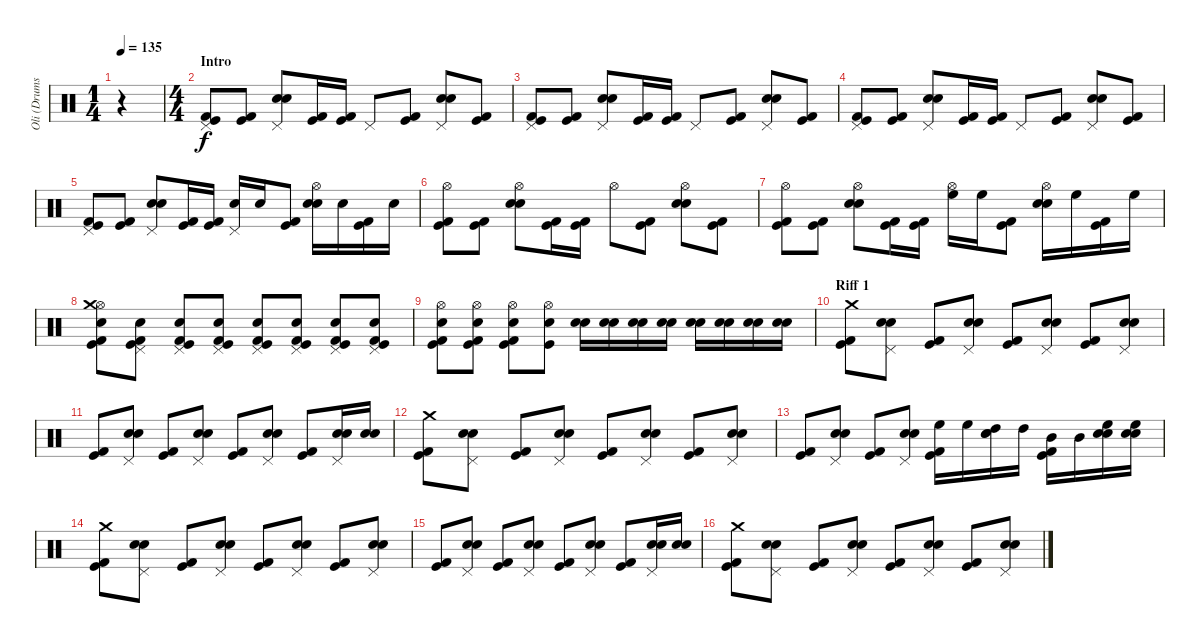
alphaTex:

\track ("Oli (Drums)" "Oli (Drums") {instrument percussion}
\staff {score}
\articulation defaults
\ts (1 4)
\tempo 135
\clef neutral
\ks c
r.4{dy f} |
\ts (4 4)
\section ("" "Intro")
("Kick (hit) 2" "Kick (hit)" "Pedal Hi-Hat (hit)").8 ("Kick (hit) 2" "Kick (hit)").8 ("Snare (hit) 2" "Electric Snare (hit)" "Pedal Hi-Hat (hit)").8 ("Kick (hit) 2" "Kick (hit)").16 ("Kick (hit) 2" "Kick (hit)").16 "Pedal Hi-Hat (hit)".8 ("Kick (hit) 2" "Kick (hit)").8 ("Snare (hit) 2" "Electric Snare (hit)" "Pedal Hi-Hat (hit)").8 ("Kick (hit)" "Kick (hit) 2").8 |
("Kick (hit) 2" "Kick (hit)" "Pedal Hi-Hat (hit)").8 ("Kick (hit) 2" "Kick (hit)").8 ("Snare (hit) 2" "Electric Snare (hit)" "Pedal Hi-Hat (hit)").8 ("Kick (hit) 2" "Kick (hit)").16 ("Kick (hit) 2" "Kick (hit)").16 "Pedal Hi-Hat (hit)".8 ("Kick (hit) 2" "Kick (hit)").8 ("Snare (hit) 2" "Electric Snare (hit)" "Pedal Hi-Hat (hit)").8 ("Kick (hit)" "Kick (hit) 2").8 |
("Kick (hit) 2" "Kick (hit)" "Pedal Hi-Hat (hit)").8 ("Kick (hit) 2" "Kick (hit)").8 ("Snare (hit) 2" "Electric Snare (hit)" "Pedal Hi-Hat (hit)").8 ("Kick (hit) 2" "Kick (hit)").16 ("Kick (hit) 2" "Kick (hit)").16 "Pedal Hi-Hat (hit)".8 ("Kick (hit) 2" "Kick (hit)").8 ("Snare (hit) 2" "Electric Snare (hit)" "Pedal Hi-Hat (hit)").8 ("Kick (hit)" "Kick (hit) 2").8 |
("Kick (hit) 2" "Kick (hit)" "Pedal Hi-Hat (hit)").8 ("Kick (hit) 2" "Kick (hit)").8 ("Snare (hit) 2" "Electric Snare (hit)" "Pedal Hi-Hat (hit)").8 ("Kick (hit) 2" "Kick (hit)").16 ("Kick (hit) 2" "Kick (hit)").16 ("Snare (hit) 2" "Pedal Hi-Hat (hit)").16 "Snare (hit) 2".16 ("Kick (hit) 2" "Kick (hit)").8 ("Snare (hit) 2" "Electric Snare (hit)" "Hi-Hat (open)").16 "Snare (hit) 2".16 ("Kick (hit)" "Kick (hit) 2").16 "Snare (hit) 2".16 |
("Kick (hit) 2" "Kick (hit)" "Hi-Hat (open)").8 ("Kick (hit) 2" "Kick (hit)").8 ("Snare (hit) 2" "Electric Snare (hit)" "Hi-Hat (open)").8 ("Kick (hit) 2" "Kick (hit)").16 ("Kick (hit) 2" "Kick (hit)").16 "Hi-Hat (open)".8 ("Kick (hit) 2" "Kick (hit)").8 ("Snare (hit) 2" "Electric Snare (hit)" "Hi-Hat (open)").8 ("Kick (hit)" "Kick (hit) 2").8 |
("Kick (hit) 2" "Kick (hit)" "Hi-Hat (open)").8 ("Kick (hit) 2" "Kick (hit)").8 ("Snare (hit) 2" "Electric Snare (hit)" "Hi-Hat (open)").8 ("Kick (hit) 2" "Kick (hit)").16 ("Kick (hit) 2" "Kick (hit)").16 ("High Floor Tom (hit)" "Hi-Hat (open)").16 "High Floor Tom (hit)".16 ("Kick (hit) 2" "Kick (hit)").8 ("Snare (hit) 2" "Electric Snare (hit)" "Hi-Hat (open)").16 "High Floor Tom (hit)".16 ("Kick (hit)" "Kick (hit) 2").16 "High Floor Tom (hit)".16 |
("Kick (hit) 2" "Kick (hit)" "Electric Snare (hit)" "Hi-Hat (open)" "Crash medium (hit)").8 ("Kick (hit) 2" "Kick (hit)" "Electric Snare (hit)" "Pedal Hi-Hat (hit)").8 ("Kick (hit) 2" "Kick (hit)" "Electric Snare (hit)" "Pedal Hi-Hat (hit)").8 ("Kick (hit) 2" "Kick (hit)" "Electric Snare (hit)" "Pedal Hi-Hat (hit)").8 ("Kick (hit) 2" "Kick (hit)" "Electric Snare (hit)" "Pedal Hi-Hat (hit)").8 ("Kick (hit) 2" "Kick (hit)" "Electric Snare (hit)" "Pedal Hi-Hat (hit)").8 ("Kick (hit) 2" "Kick (hit)" "Electric Snare (hit)" "Pedal Hi-Hat (hit)").8 ("Kick (hit) 2" "Kick (hit)" "Electric Snare (hit)" "Pedal Hi-Hat (hit)").8 |
("Kick (hit) 2" "Kick (hit)" "Electric Snare (hit)" "Hi-Hat (open)").8 ("Kick (hit) 2" "Kick (hit)" "Electric Snare (hit)" "Hi-Hat (open)").8 ("Kick (hit) 2" "Kick (hit)" "Electric Snare (hit)" "Hi-Hat (open)").8 ("Kick (hit)" "Electric Snare (hit)" "Hi-Hat (open)").8 ("Snare (hit) 2" "Electric Snare (hit)").16 ("Snare (hit) 2" "Electric Snare (hit)").16 ("Snare (hit) 2" "Electric Snare (hit)").16 ("Snare (hit) 2" "Electric Snare (hit)").16 ("Snare (hit) 2" "Electric Snare (hit)").16 ("Snare (hit) 2" "Electric Snare (hit)").16 ("Snare (hit) 2" "Electric Snare (hit)").16 ("Snare (hit) 2" "Electric Snare (hit)").16 |
\section ("" "Riff 1")
("Kick (hit) 2" "Kick (hit)" "Crash medium (hit)").8 ("Snare (hit) 2" "Electric Snare (hit)" "Pedal Hi-Hat (hit)").8 ("Kick (hit) 2" "Kick (hit)").8 ("Snare (hit) 2" "Electric Snare (hit)" "Pedal Hi-Hat (hit)").8 ("Kick (hit) 2" "Kick (hit)").8 ("Snare (hit) 2" "Electric Snare (hit)" "Pedal Hi-Hat (hit)").8 ("Kick (hit) 2" "Kick (hit)").8 ("Snare (hit) 2" "Electric Snare (hit)" "Pedal Hi-Hat (hit)").8 |
("Kick (hit) 2" "Kick (hit)").8 ("Snare (hit) 2" "Electric Snare (hit)" "Pedal Hi-Hat (hit)").8 ("Kick (hit) 2" "Kick (hit)").8 ("Snare (hit) 2" "Electric Snare (hit)" "Pedal Hi-Hat (hit)").8 ("Kick (hit) 2" "Kick (hit)").8 ("Snare (hit) 2" "Electric Snare (hit)" "Pedal Hi-Hat (hit)").8 ("Kick (hit) 2" "Kick (hit)").8 ("Snare (hit) 2" "Electric Snare (hit)" "Pedal Hi-Hat (hit)").16 ("Snare (hit) 2" "Electric Snare (hit)").16 |
("Kick (hit) 2" "Kick (hit)" "Crash medium (hit)").8 ("Snare (hit) 2" "Electric Snare (hit)" "Pedal Hi-Hat (hit)").8 ("Kick (hit) 2" "Kick (hit)").8 ("Snare (hit) 2" "Electric Snare (hit)" "Pedal Hi-Hat (hit)").8 ("Kick (hit) 2" "Kick (hit)").8 ("Snare (hit) 2" "Electric Snare (hit)" "Pedal Hi-Hat (hit)").8 ("Kick (hit) 2" "Kick (hit)").8 ("Snare (hit) 2" "Electric Snare (hit)" "Pedal Hi-Hat (hit)").8 |
("Kick (hit) 2" "Kick (hit)").8 ("Snare (hit) 2" "Electric Snare (hit)" "Pedal Hi-Hat (hit)").8 ("Kick (hit) 2" "Kick (hit)").8 ("Snare (hit) 2" "Electric Snare (hit)" "Pedal Hi-Hat (hit)").8 ("Kick (hit) 2" "Kick (hit)" "High Floor Tom (hit)").16 "High Floor Tom (hit)".16 ("Snare (hit) 2" "Electric Snare (hit)" "High Tom (hit)").16 "High Tom (hit)".16 ("Kick (hit) 2" "Kick (hit)" "Mid Tom (hit)").16 "Mid Tom (hit)".16 ("Snare (hit) 2" "Electric Snare (hit)" "High Floor Tom (hit)").16 ("Snare (hit) 2" "Electric Snare (hit)" "High Floor Tom (hit)").16 |
("Kick (hit) 2" "Kick (hit)" "Crash medium (hit)").8 ("Snare (hit) 2" "Electric Snare (hit)" "Pedal Hi-Hat (hit)").8 ("Kick (hit) 2" "Kick (hit)").8 ("Snare (hit) 2" "Electric Snare (hit)" "Pedal Hi-Hat (hit)").8 ("Kick (hit) 2" "Kick (hit)").8 ("Snare (hit) 2" "Electric Snare (hit)" "Pedal Hi-Hat (hit)").8 ("Kick (hit) 2" "Kick (hit)").8 ("Snare (hit) 2" "Electric Snare (hit)" "Pedal Hi-Hat (hit)").8 |
("Kick (hit) 2" "Kick (hit)").8 ("Snare (hit) 2" "Electric Snare (hit)" "Pedal Hi-Hat (hit)").8 ("Kick (hit) 2" "Kick (hit)").8 ("Snare (hit) 2" "Electric Snare (hit)" "Pedal Hi-Hat (hit)").8 ("Kick (hit) 2" "Kick (hit)").8 ("Snare (hit) 2" "Electric Snare (hit)" "Pedal Hi-Hat (hit)").8 ("Kick (hit) 2" "Kick (hit)").8 ("Snare (hit) 2" "Electric Snare (hit)" "Pedal Hi-Hat (hit)").16 ("Snare (hit) 2" "Electric Snare (hit)").16 |
("Kick (hit) 2" "Kick (hit)" "Crash medium (hit)").8 ("Snare (hit) 2" "Electric Snare (hit)" "Pedal Hi-Hat (hit)").8 ("Kick (hit) 2" "Kick (hit)").8 ("Snare (hit) 2" "Electric Snare (hit)" "Pedal Hi-Hat (hit)").8 ("Kick (hit) 2" "Kick (hit)").8 ("Snare (hit) 2" "Electric Snare (hit)" "Pedal Hi-Hat (hit)").8 ("Kick (hit) 2" "Kick (hit)").8 ("Snare (hit) 2" "Electric Snare (hit)" "Pedal Hi-Hat (hit)").8
